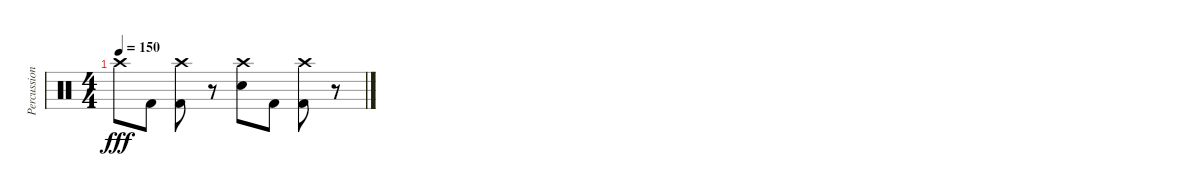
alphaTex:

\track ("Percussion" "Percussion") {instrument percussion}
\staff {score}
\articulation defaults
\ts (4 4)
\tempo 150
\clef neutral
\ks c "Crash high (hit)".8{dy fff} "Kick (hit) 2".8
("Crash high (hit)" "Kick (hit) 2").8 r.8 ("Crash high (hit)" "Electric Snare (hit)").8 "Kick (hit) 2".8 ("Crash high (hit)" "Kick (hit) 2").8 r.8
